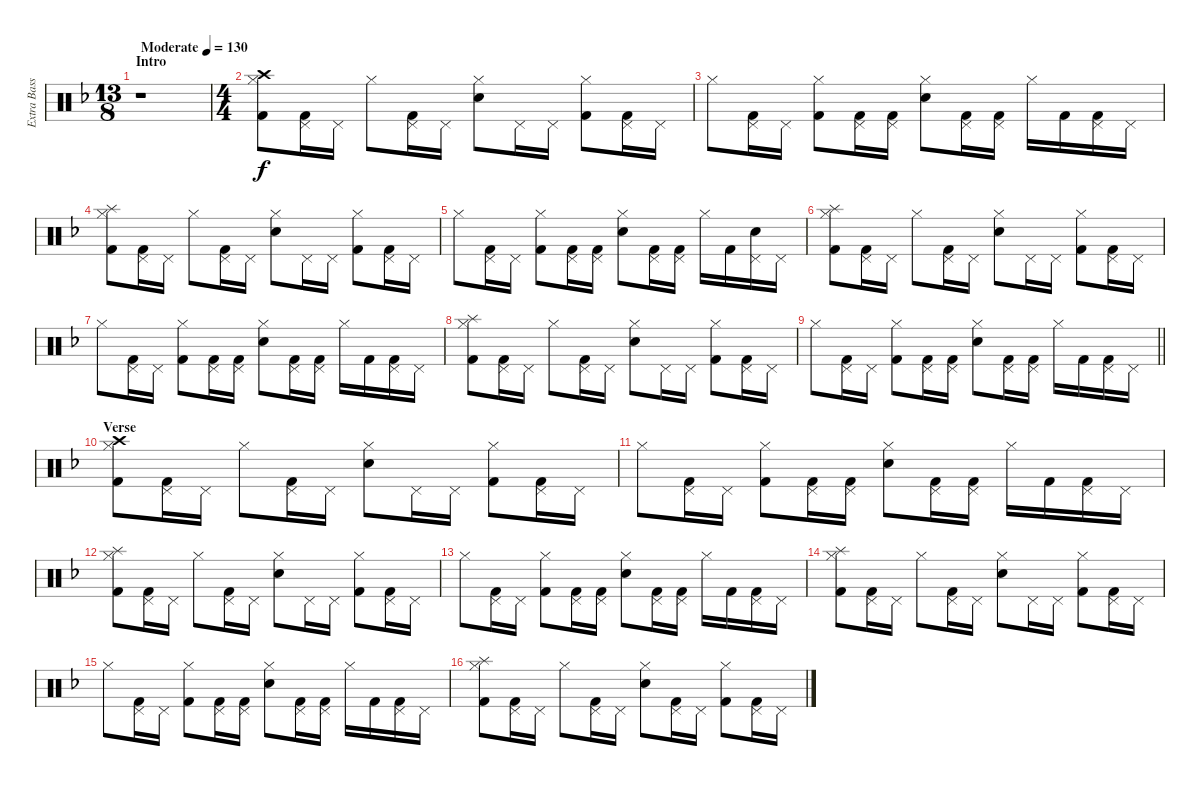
\track ("Extra BassDrum" "Extra Bass") {instrument percussion}
\staff {score}
\articulation defaults
\ts (13 8)
\section ("" "Intro")
\tempo (130 "Moderate")
\clef neutral
\ks f
r.1{dy f} |
\ts (4 4)
("Crash high (hit)" "Hi-Hat (closed)" "Kick (hit) 2").8 ("Pedal Hi-Hat (hit)" "Kick (hit) 2").16 "Pedal Hi-Hat (hit)".16 "Hi-Hat (closed)".8 ("Pedal Hi-Hat (hit)" "Kick (hit) 2").16 "Pedal Hi-Hat (hit)".16 ("Hi-Hat (closed)" "Snare (hit) 2").8 "Pedal Hi-Hat (hit)".16 "Pedal Hi-Hat (hit)".16 ("Hi-Hat (closed)" "Kick (hit) 2").8 ("Pedal Hi-Hat (hit)" "Kick (hit) 2").16 "Pedal Hi-Hat (hit)".16 |
"Hi-Hat (closed)".8 ("Pedal Hi-Hat (hit)" "Kick (hit) 2").16 "Pedal Hi-Hat (hit)".16 ("Hi-Hat (closed)" "Kick (hit) 2").8 ("Pedal Hi-Hat (hit)" "Kick (hit) 2").16 ("Pedal Hi-Hat (hit)" "Kick (hit) 2").16 ("Hi-Hat (closed)" "Snare (hit) 2").8 ("Pedal Hi-Hat (hit)" "Kick (hit) 2").16 ("Pedal Hi-Hat (hit)" "Kick (hit) 2").16 "Hi-Hat (closed)".16 "Kick (hit) 2".16 ("Pedal Hi-Hat (hit)" "Kick (hit) 2").16 "Pedal Hi-Hat (hit)".16 |
("Splash (hit)" "Hi-Hat (closed)" "Kick (hit) 2").8 ("Pedal Hi-Hat (hit)" "Kick (hit) 2").16 "Pedal Hi-Hat (hit)".16 "Hi-Hat (closed)".8 ("Pedal Hi-Hat (hit)" "Kick (hit) 2").16 "Pedal Hi-Hat (hit)".16 ("Hi-Hat (closed)" "Snare (hit) 2").8 "Pedal Hi-Hat (hit)".16 "Pedal Hi-Hat (hit)".16 ("Hi-Hat (closed)" "Kick (hit) 2").8 ("Pedal Hi-Hat (hit)" "Kick (hit) 2").16 "Pedal Hi-Hat (hit)".16 |
"Hi-Hat (closed)".8 ("Pedal Hi-Hat (hit)" "Kick (hit) 2").16 "Pedal Hi-Hat (hit)".16 ("Hi-Hat (closed)" "Kick (hit) 2").8 ("Pedal Hi-Hat (hit)" "Kick (hit) 2").16 ("Pedal Hi-Hat (hit)" "Kick (hit) 2").16 ("Hi-Hat (closed)" "Snare (hit) 2").8 ("Pedal Hi-Hat (hit)" "Kick (hit) 2").16 ("Pedal Hi-Hat (hit)" "Kick (hit) 2").16 "Hi-Hat (closed)".16 "Kick (hit) 2".16 ("Pedal Hi-Hat (hit)" "Snare (hit) 2").16 "Pedal Hi-Hat (hit)".16 |
("Splash (hit)" "Hi-Hat (closed)" "Kick (hit) 2").8 ("Pedal Hi-Hat (hit)" "Kick (hit) 2").16 "Pedal Hi-Hat (hit)".16 "Hi-Hat (closed)".8 ("Pedal Hi-Hat (hit)" "Kick (hit) 2").16 "Pedal Hi-Hat (hit)".16 ("Hi-Hat (closed)" "Snare (hit) 2").8 "Pedal Hi-Hat (hit)".16 "Pedal Hi-Hat (hit)".16 ("Hi-Hat (closed)" "Kick (hit) 2").8 ("Pedal Hi-Hat (hit)" "Kick (hit) 2").16 "Pedal Hi-Hat (hit)".16 |
"Hi-Hat (closed)".8 ("Pedal Hi-Hat (hit)" "Kick (hit) 2").16 "Pedal Hi-Hat (hit)".16 ("Hi-Hat (closed)" "Kick (hit) 2").8 ("Pedal Hi-Hat (hit)" "Kick (hit) 2").16 ("Pedal Hi-Hat (hit)" "Kick (hit) 2").16 ("Hi-Hat (closed)" "Snare (hit) 2").8 ("Pedal Hi-Hat (hit)" "Kick (hit) 2").16 ("Pedal Hi-Hat (hit)" "Kick (hit) 2").16 "Hi-Hat (closed)".16 "Kick (hit) 2".16 ("Pedal Hi-Hat (hit)" "Kick (hit) 2").16 "Pedal Hi-Hat (hit)".16 |
("Splash (hit)" "Hi-Hat (closed)" "Kick (hit) 2").8 ("Pedal Hi-Hat (hit)" "Kick (hit) 2").16 "Pedal Hi-Hat (hit)".16 "Hi-Hat (closed)".8 ("Pedal Hi-Hat (hit)" "Kick (hit) 2").16 "Pedal Hi-Hat (hit)".16 ("Hi-Hat (closed)" "Snare (hit) 2").8 "Pedal Hi-Hat (hit)".16 "Pedal Hi-Hat (hit)".16 ("Hi-Hat (closed)" "Kick (hit) 2").8 ("Pedal Hi-Hat (hit)" "Kick (hit) 2").16 "Pedal Hi-Hat (hit)".16 |
\barLineRight lightlight "Hi-Hat (closed)".8
("Pedal Hi-Hat (hit)" "Kick (hit) 2").16 "Pedal Hi-Hat (hit)".16 ("Hi-Hat (closed)" "Kick (hit) 2").8 ("Pedal Hi-Hat (hit)" "Kick (hit) 2").16 ("Pedal Hi-Hat (hit)" "Kick (hit) 2").16 ("Hi-Hat (closed)" "Snare (hit) 2").8 ("Pedal Hi-Hat (hit)" "Kick (hit) 2").16 ("Pedal Hi-Hat (hit)" "Kick (hit) 2").16 "Hi-Hat (closed)".16 "Kick (hit) 2".16 ("Pedal Hi-Hat (hit)" "Kick (hit) 2").16 "Pedal Hi-Hat (hit)".16 |
\section ("" "Verse")
("Crash high (hit)" "Hi-Hat (closed)" "Kick (hit) 2").8 ("Pedal Hi-Hat (hit)" "Kick (hit) 2").16 "Pedal Hi-Hat (hit)".16 "Hi-Hat (closed)".8 ("Pedal Hi-Hat (hit)" "Kick (hit) 2").16 "Pedal Hi-Hat (hit)".16 ("Hi-Hat (closed)" "Snare (hit) 2").8 "Pedal Hi-Hat (hit)".16 "Pedal Hi-Hat (hit)".16 ("Hi-Hat (closed)" "Kick (hit) 2").8 ("Pedal Hi-Hat (hit)" "Kick (hit) 2").16 "Pedal Hi-Hat (hit)".16 |
"Hi-Hat (closed)".8 ("Pedal Hi-Hat (hit)" "Kick (hit) 2").16 "Pedal Hi-Hat (hit)".16 ("Hi-Hat (closed)" "Kick (hit) 2").8 ("Pedal Hi-Hat (hit)" "Kick (hit) 2").16 ("Pedal Hi-Hat (hit)" "Kick (hit) 2").16 ("Hi-Hat (closed)" "Snare (hit) 2").8 ("Pedal Hi-Hat (hit)" "Kick (hit) 2").16 ("Pedal Hi-Hat (hit)" "Kick (hit) 2").16 "Hi-Hat (closed)".16 "Kick (hit) 2".16 ("Pedal Hi-Hat (hit)" "Kick (hit) 2").16 "Pedal Hi-Hat (hit)".16 |
("Splash (hit)" "Hi-Hat (closed)" "Kick (hit) 2").8 ("Pedal Hi-Hat (hit)" "Kick (hit) 2").16 "Pedal Hi-Hat (hit)".16 "Hi-Hat (closed)".8 ("Pedal Hi-Hat (hit)" "Kick (hit) 2").16 "Pedal Hi-Hat (hit)".16 ("Hi-Hat (closed)" "Snare (hit) 2").8 "Pedal Hi-Hat (hit)".16 "Pedal Hi-Hat (hit)".16 ("Hi-Hat (closed)" "Kick (hit) 2").8 ("Pedal Hi-Hat (hit)" "Kick (hit) 2").16 "Pedal Hi-Hat (hit)".16 |
"Hi-Hat (closed)".8 ("Pedal Hi-Hat (hit)" "Kick (hit) 2").16 "Pedal Hi-Hat (hit)".16 ("Hi-Hat (closed)" "Kick (hit) 2").8 ("Pedal Hi-Hat (hit)" "Kick (hit) 2").16 ("Pedal Hi-Hat (hit)" "Kick (hit) 2").16 ("Hi-Hat (closed)" "Snare (hit) 2").8 ("Pedal Hi-Hat (hit)" "Kick (hit) 2").16 ("Pedal Hi-Hat (hit)" "Kick (hit) 2").16 "Hi-Hat (closed)".16 "Kick (hit) 2".16 ("Pedal Hi-Hat (hit)" "Kick (hit) 2").16 "Pedal Hi-Hat (hit)".16 |
("Splash (hit)" "Hi-Hat (closed)" "Kick (hit) 2").8 ("Pedal Hi-Hat (hit)" "Kick (hit) 2").16 "Pedal Hi-Hat (hit)".16 "Hi-Hat (closed)".8 ("Pedal Hi-Hat (hit)" "Kick (hit) 2").16 "Pedal Hi-Hat (hit)".16 ("Hi-Hat (closed)" "Snare (hit) 2").8 "Pedal Hi-Hat (hit)".16 "Pedal Hi-Hat (hit)".16 ("Hi-Hat (closed)" "Kick (hit) 2").8 ("Pedal Hi-Hat (hit)" "Kick (hit) 2").16 "Pedal Hi-Hat (hit)".16 |
"Hi-Hat (closed)".8 ("Pedal Hi-Hat (hit)" "Kick (hit) 2").16 "Pedal Hi-Hat (hit)".16 ("Hi-Hat (closed)" "Kick (hit) 2").8 ("Pedal Hi-Hat (hit)" "Kick (hit) 2").16 ("Pedal Hi-Hat (hit)" "Kick (hit) 2").16 ("Hi-Hat (closed)" "Snare (hit) 2").8 ("Pedal Hi-Hat (hit)" "Kick (hit) 2").16 ("Pedal Hi-Hat (hit)" "Kick (hit) 2").16 "Hi-Hat (closed)".16 "Kick (hit) 2".16 ("Pedal Hi-Hat (hit)" "Kick (hit) 2").16 "Pedal Hi-Hat (hit)".16 |
("Splash (hit)" "Hi-Hat (closed)" "Kick (hit) 2").8 ("Pedal Hi-Hat (hit)" "Kick (hit) 2").16 "Pedal Hi-Hat (hit)".16 "Hi-Hat (closed)".8 ("Pedal Hi-Hat (hit)" "Kick (hit) 2").16 "Pedal Hi-Hat (hit)".16 ("Hi-Hat (closed)" "Snare (hit) 2").8 ("Pedal Hi-Hat (hit)" "Kick (hit) 2").16 "Pedal Hi-Hat (hit)".16 ("Hi-Hat (closed)" "Kick (hit) 2").8 ("Pedal Hi-Hat (hit)" "Kick (hit) 2").16 "Pedal Hi-Hat (hit)".16
